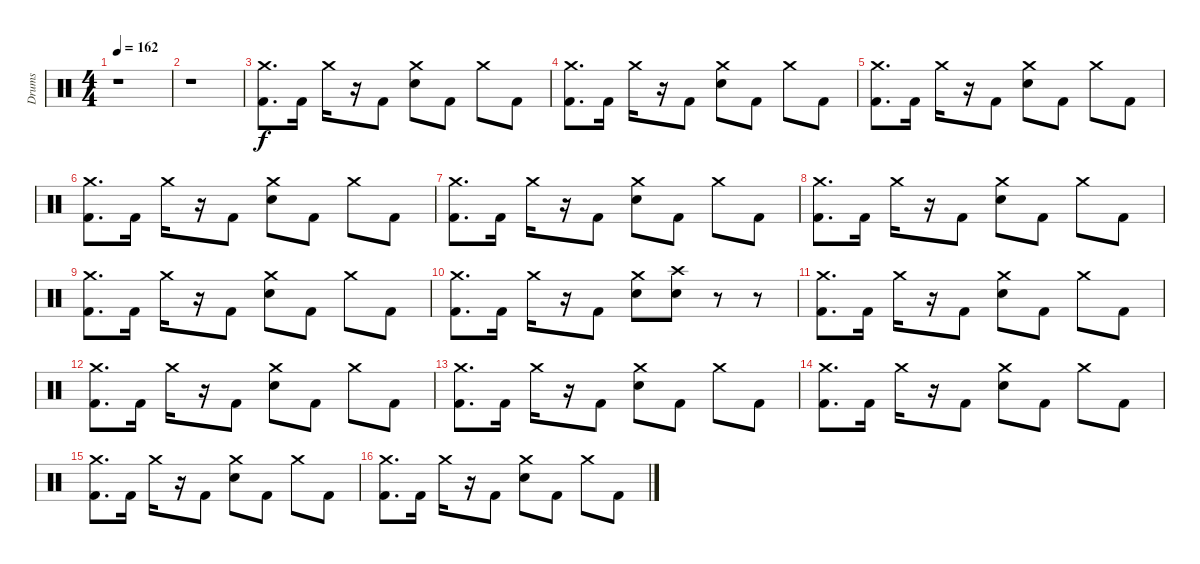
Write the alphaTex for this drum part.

\track ("Drums" "Drums") {instrument percussion}
\staff {score}
\articulation defaults
\ts (4 4)
\tempo 162
\clef neutral
\ks c
r.1{dy f} |
r.1 |
("Crash medium (hit)" "Kick (hit) 2").8{d} "Kick (hit) 2".16 "Crash medium (hit)".16 r.16 "Kick (hit) 2".8 ("Crash medium (hit)" "Electric Snare (hit)").8 "Kick (hit) 2".8 "Crash medium (hit)".8 "Kick (hit) 2".8 |
("Crash medium (hit)" "Kick (hit) 2").8{d} "Kick (hit) 2".16 "Crash medium (hit)".16 r.16 "Kick (hit) 2".8 ("Crash medium (hit)" "Electric Snare (hit)").8 "Kick (hit) 2".8 "Crash medium (hit)".8 "Kick (hit) 2".8 |
("Crash medium (hit)" "Kick (hit) 2").8{d} "Kick (hit) 2".16 "Crash medium (hit)".16 r.16 "Kick (hit) 2".8 ("Crash medium (hit)" "Electric Snare (hit)").8 "Kick (hit) 2".8 "Crash medium (hit)".8 "Kick (hit) 2".8 |
("Crash medium (hit)" "Kick (hit) 2").8{d} "Kick (hit) 2".16 "Crash medium (hit)".16 r.16 "Kick (hit) 2".8 ("Crash medium (hit)" "Electric Snare (hit)").8 "Kick (hit) 2".8 "Crash medium (hit)".8 "Kick (hit) 2".8 |
("Crash medium (hit)" "Kick (hit) 2").8{d} "Kick (hit) 2".16 "Crash medium (hit)".16 r.16 "Kick (hit) 2".8 ("Crash medium (hit)" "Electric Snare (hit)").8 "Kick (hit) 2".8 "Crash medium (hit)".8 "Kick (hit) 2".8 |
("Crash medium (hit)" "Kick (hit) 2").8{d} "Kick (hit) 2".16 "Crash medium (hit)".16 r.16 "Kick (hit) 2".8 ("Crash medium (hit)" "Electric Snare (hit)").8 "Kick (hit) 2".8 "Crash medium (hit)".8 "Kick (hit) 2".8 |
("Crash medium (hit)" "Kick (hit) 2").8{d} "Kick (hit) 2".16 "Crash medium (hit)".16 r.16 "Kick (hit) 2".8 ("Crash medium (hit)" "Electric Snare (hit)").8 "Kick (hit) 2".8 "Crash medium (hit)".8 "Kick (hit) 2".8 |
("Crash medium (hit)" "Kick (hit) 2").8{d} "Kick (hit) 2".16 "Crash medium (hit)".16 r.16 "Kick (hit) 2".8 ("Crash medium (hit)" "Electric Snare (hit)").8 ("Crash high (hit)" "Electric Snare (hit)").8 r.8 r.8 |
("Crash medium (hit)" "Kick (hit) 2").8{d} "Kick (hit) 2".16 "Crash medium (hit)".16 r.16 "Kick (hit) 2".8 ("Crash medium (hit)" "Electric Snare (hit)").8 "Kick (hit) 2".8 "Crash medium (hit)".8 "Kick (hit) 2".8 |
("Crash medium (hit)" "Kick (hit) 2").8{d} "Kick (hit) 2".16 "Crash medium (hit)".16 r.16 "Kick (hit) 2".8 ("Crash medium (hit)" "Electric Snare (hit)").8 "Kick (hit) 2".8 "Crash medium (hit)".8 "Kick (hit) 2".8 |
("Crash medium (hit)" "Kick (hit) 2").8{d} "Kick (hit) 2".16 "Crash medium (hit)".16 r.16 "Kick (hit) 2".8 ("Crash medium (hit)" "Electric Snare (hit)").8 "Kick (hit) 2".8 "Crash medium (hit)".8 "Kick (hit) 2".8 |
("Crash medium (hit)" "Kick (hit) 2").8{d} "Kick (hit) 2".16 "Crash medium (hit)".16 r.16 "Kick (hit) 2".8 ("Crash medium (hit)" "Electric Snare (hit)").8 "Kick (hit) 2".8 "Crash medium (hit)".8 "Kick (hit) 2".8 |
("Crash medium (hit)" "Kick (hit) 2").8{d} "Kick (hit) 2".16 "Crash medium (hit)".16 r.16 "Kick (hit) 2".8 ("Crash medium (hit)" "Electric Snare (hit)").8 "Kick (hit) 2".8 "Crash medium (hit)".8 "Kick (hit) 2".8 |
("Crash medium (hit)" "Kick (hit) 2").8{d} "Kick (hit) 2".16 "Crash medium (hit)".16 r.16 "Kick (hit) 2".8 ("Crash medium (hit)" "Electric Snare (hit)").8 "Kick (hit) 2".8 "Crash medium (hit)".8 "Kick (hit) 2".8
